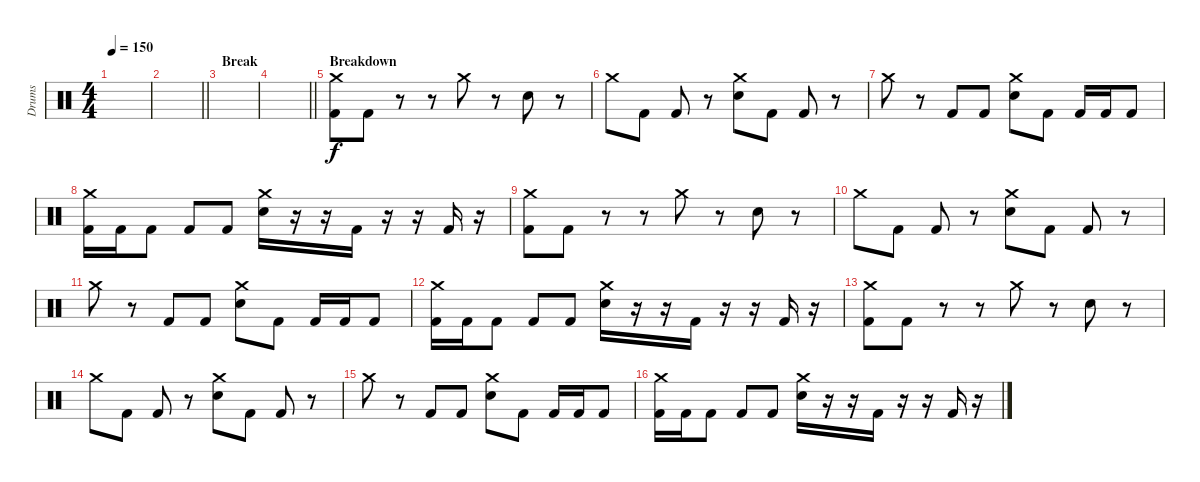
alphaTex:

\track ("Drums" "Drums") {instrument percussion}
\staff {score}
\articulation defaults
\ts (4 4)
\tempo 150
\clef neutral
\ks c
|
\barLineRight lightlight
|
\section ("" "Break")
|
\barLineRight lightlight
|
\section ("" "Breakdown")
("Crash medium (hit)" "Kick (hit) 2").8 "Kick (hit) 2".8 r.8 r.8 "Crash medium (hit)".8 r.8 "Electric Snare (hit)".8 r.8 |
"Crash medium (hit)".8 "Kick (hit) 2".8 "Kick (hit) 2".8 r.8 ("Crash medium (hit)" "Electric Snare (hit)").8 "Kick (hit) 2".8 "Kick (hit) 2".8 r.8 |
"Crash medium (hit)".8 r.8 "Kick (hit) 2".8 "Kick (hit) 2".8 ("Crash medium (hit)" "Electric Snare (hit)").8 "Kick (hit) 2".8 "Kick (hit) 2".16 "Kick (hit) 2".16 "Kick (hit) 2".8 |
("Crash medium (hit)" "Kick (hit) 2").16 "Kick (hit) 2".16 "Kick (hit) 2".8 "Kick (hit) 2".8 "Kick (hit) 2".8 ("Crash medium (hit)" "Electric Snare (hit)").16 r.16 r.16 "Kick (hit) 2".16 r.16 r.16 "Kick (hit) 2".16 r.16 |
("Crash medium (hit)" "Kick (hit) 2").8 "Kick (hit) 2".8 r.8 r.8 "Crash medium (hit)".8 r.8 "Electric Snare (hit)".8 r.8 |
"Crash medium (hit)".8 "Kick (hit) 2".8 "Kick (hit) 2".8 r.8 ("Crash medium (hit)" "Electric Snare (hit)").8 "Kick (hit) 2".8 "Kick (hit) 2".8 r.8 |
"Crash medium (hit)".8 r.8 "Kick (hit) 2".8 "Kick (hit) 2".8 ("Crash medium (hit)" "Electric Snare (hit)").8 "Kick (hit) 2".8 "Kick (hit) 2".16 "Kick (hit) 2".16 "Kick (hit) 2".8 |
("Crash medium (hit)" "Kick (hit) 2").16 "Kick (hit) 2".16 "Kick (hit) 2".8 "Kick (hit) 2".8 "Kick (hit) 2".8 ("Crash medium (hit)" "Electric Snare (hit)").16 r.16 r.16 "Kick (hit) 2".16 r.16 r.16 "Kick (hit) 2".16 r.16 |
("Crash medium (hit)" "Kick (hit) 2").8 "Kick (hit) 2".8 r.8 r.8 "Crash medium (hit)".8 r.8 "Electric Snare (hit)".8 r.8 |
"Crash medium (hit)".8 "Kick (hit) 2".8 "Kick (hit) 2".8 r.8 ("Crash medium (hit)" "Electric Snare (hit)").8 "Kick (hit) 2".8 "Kick (hit) 2".8 r.8 |
"Crash medium (hit)".8 r.8 "Kick (hit) 2".8 "Kick (hit) 2".8 ("Crash medium (hit)" "Electric Snare (hit)").8 "Kick (hit) 2".8 "Kick (hit) 2".16 "Kick (hit) 2".16 "Kick (hit) 2".8 |
("Crash medium (hit)" "Kick (hit) 2").16 "Kick (hit) 2".16 "Kick (hit) 2".8 "Kick (hit) 2".8 "Kick (hit) 2".8 ("Crash medium (hit)" "Electric Snare (hit)").16 r.16 r.16 "Kick (hit) 2".16 r.16 r.16 "Kick (hit) 2".16 r.16
